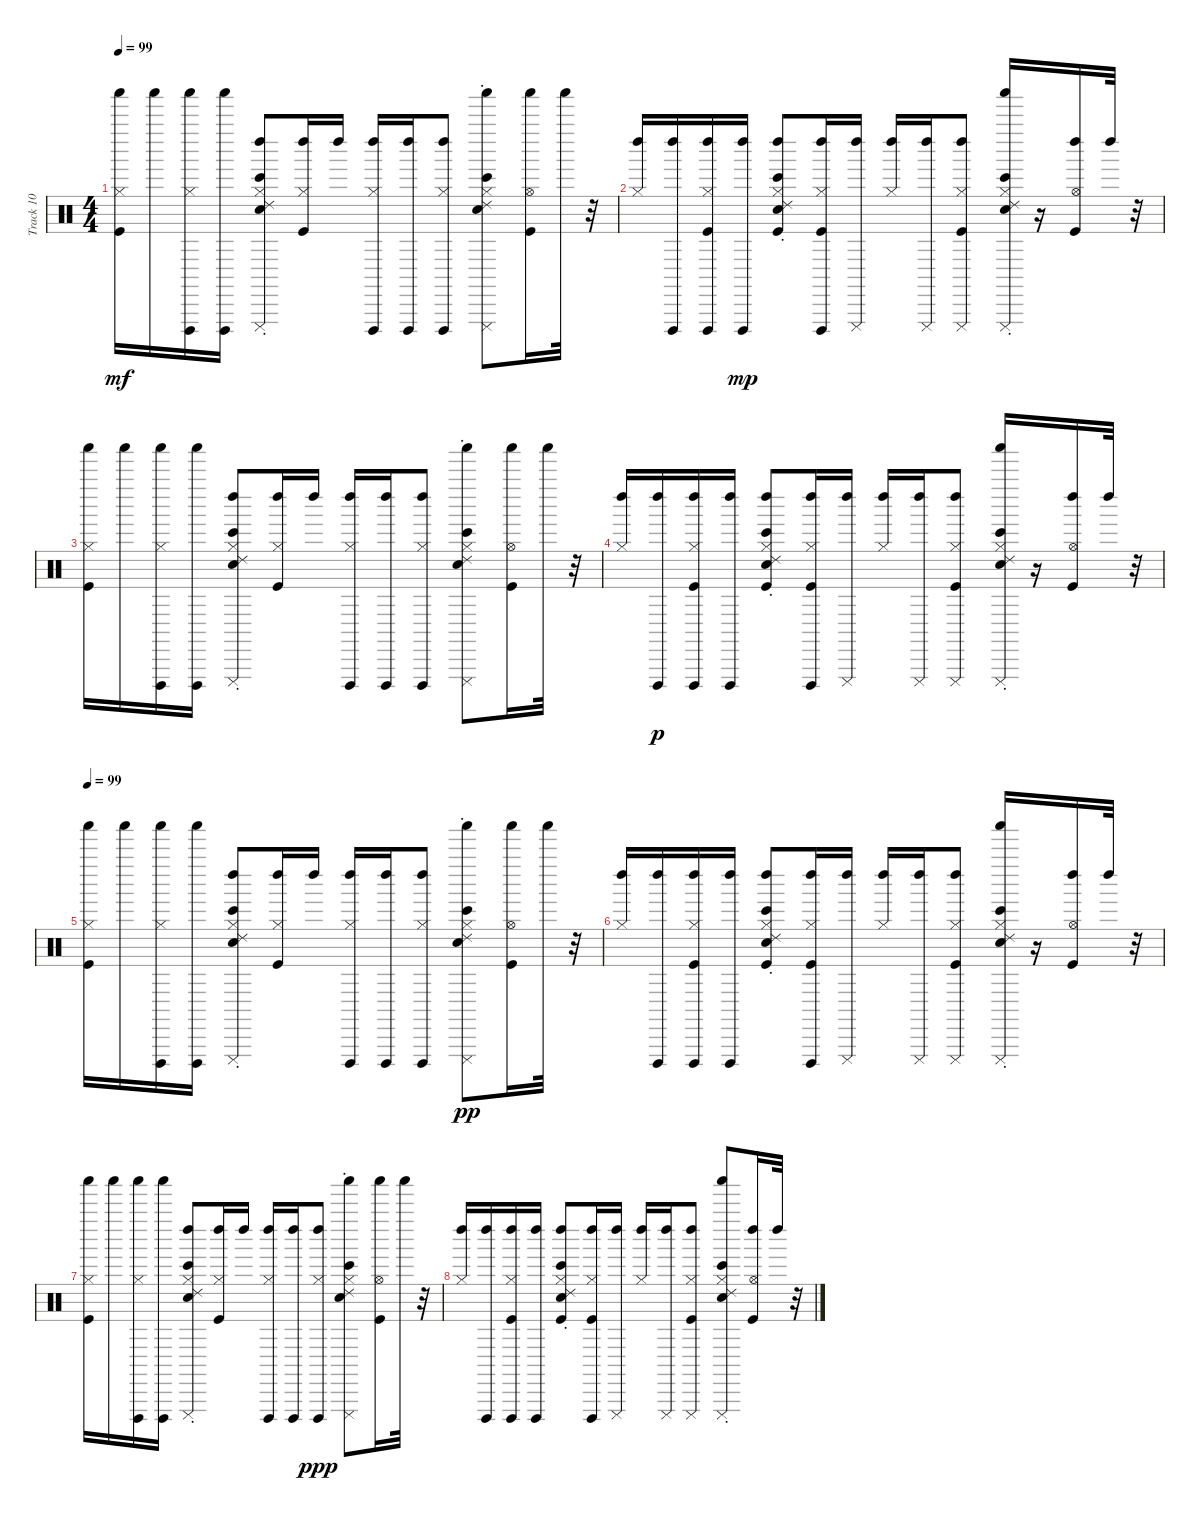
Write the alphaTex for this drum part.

\track ("Track 10" "Track 10") {instrument percussion}
\staff {score}
\articulation defaults
\ts (4 4)
\tempo 99
\clef neutral
\ks c
("Kick (hit)" "Hi-Hat (closed)" "Shaker (hit)").16{dy mf} "Shaker (hit)".16 ("Hi-Hat (closed)" "Cuica (open)" "Shaker (hit)").16 ("Cuica (open)" "Shaker (hit)").16 ("Bongo High (hit)" "Ride (choke) 2" "Electric Snare (hit)" "Hi-Hat (closed)" "Left Maraca (hit)" "Cuica (mute)").8 ("Kick (hit)" "Hi-Hat (closed)" "Left Maraca (hit)").16 "Left Maraca (hit)".16 ("Hi-Hat (closed)" "Left Maraca (hit)" "Cuica (open)").16 ("Cuica (open)" "Left Maraca (hit)").16 ("Hi-Hat (closed)" "Left Maraca (hit)" "Cuica (open)").8 ("Bongo High (hit)" "Ride (choke) 2" "Electric Snare (hit)" "Hi-Hat (closed)" "Cuica (mute)" "Shaker (hit)").8 ("Kick (hit)" "Hi-Hat (open)" "Shaker (hit)").16 "Shaker (hit)".32 r.32 |
("Hi-Hat (closed)" "Left Maraca (hit)").16 ("Cuica (open)" "Left Maraca (hit)").16 ("Kick (hit)" "Hi-Hat (closed)" "Left Maraca (hit)" "Cuica (open)").16 ("Cuica (open)" "Left Maraca (hit)").16{dy mp} ("Bongo High (hit)" "Ride (choke) 2" "Kick (hit)" "Electric Snare (hit)" "Hi-Hat (closed)" "Left Maraca (hit)").8 ("Kick (hit)" "Hi-Hat (closed)" "Left Maraca (hit)" "Cuica (open)").16 ("Cuica (mute)" "Left Maraca (hit)").16 ("Hi-Hat (closed)" "Left Maraca (hit)").16 ("Cuica (mute)" "Left Maraca (hit)").16 ("Kick (hit)" "Hi-Hat (closed)" "Left Maraca (hit)" "Cuica (mute)").8 ("Bongo High (hit)" "Ride (choke) 2" "Electric Snare (hit)" "Hi-Hat (closed)" "Cuica (mute)" "Shaker (hit)").16 r.16 ("Kick (hit)" "Hi-Hat (open)" "Left Maraca (hit)").16 "Left Maraca (hit)".32 r.32 |
("Kick (hit)" "Hi-Hat (closed)" "Shaker (hit)").16 "Shaker (hit)".16 ("Hi-Hat (closed)" "Cuica (open)" "Shaker (hit)").16 ("Cuica (open)" "Shaker (hit)").16 ("Bongo High (hit)" "Ride (choke) 2" "Electric Snare (hit)" "Hi-Hat (closed)" "Left Maraca (hit)" "Cuica (mute)").8 ("Kick (hit)" "Hi-Hat (closed)" "Left Maraca (hit)").16 "Left Maraca (hit)".16 ("Hi-Hat (closed)" "Left Maraca (hit)" "Cuica (open)").16 ("Cuica (open)" "Left Maraca (hit)").16 ("Hi-Hat (closed)" "Left Maraca (hit)" "Cuica (open)").8 ("Bongo High (hit)" "Ride (choke) 2" "Electric Snare (hit)" "Hi-Hat (closed)" "Cuica (mute)" "Shaker (hit)").8 ("Kick (hit)" "Hi-Hat (open)" "Shaker (hit)").16 "Shaker (hit)".32 r.32 |
("Hi-Hat (closed)" "Left Maraca (hit)").16 ("Cuica (open)" "Left Maraca (hit)").16{dy p} ("Kick (hit)" "Hi-Hat (closed)" "Left Maraca (hit)" "Cuica (open)").16 ("Cuica (open)" "Left Maraca (hit)").16 ("Bongo High (hit)" "Ride (choke) 2" "Kick (hit)" "Electric Snare (hit)" "Hi-Hat (closed)" "Left Maraca (hit)").8 ("Kick (hit)" "Hi-Hat (closed)" "Left Maraca (hit)" "Cuica (open)").16 ("Cuica (mute)" "Left Maraca (hit)").16 ("Hi-Hat (closed)" "Left Maraca (hit)").16 ("Cuica (mute)" "Left Maraca (hit)").16 ("Kick (hit)" "Hi-Hat (closed)" "Left Maraca (hit)" "Cuica (mute)").8 ("Bongo High (hit)" "Ride (choke) 2" "Electric Snare (hit)" "Hi-Hat (closed)" "Cuica (mute)" "Shaker (hit)").16 r.16 ("Kick (hit)" "Hi-Hat (open)" "Left Maraca (hit)").16 "Left Maraca (hit)".32 r.32 |
\tempo 99
("Kick (hit)" "Hi-Hat (closed)" "Shaker (hit)").16 "Shaker (hit)".16 ("Hi-Hat (closed)" "Cuica (open)" "Shaker (hit)").16 ("Cuica (open)" "Shaker (hit)").16 ("Bongo High (hit)" "Ride (choke) 2" "Electric Snare (hit)" "Hi-Hat (closed)" "Left Maraca (hit)" "Cuica (mute)").8 ("Kick (hit)" "Hi-Hat (closed)" "Left Maraca (hit)").16 "Left Maraca (hit)".16 ("Hi-Hat (closed)" "Left Maraca (hit)" "Cuica (open)").16 ("Cuica (open)" "Left Maraca (hit)").16 ("Hi-Hat (closed)" "Left Maraca (hit)" "Cuica (open)").8 ("Bongo High (hit)" "Ride (choke) 2" "Electric Snare (hit)" "Hi-Hat (closed)" "Cuica (mute)" "Shaker (hit)").8{dy pp} ("Kick (hit)" "Hi-Hat (open)" "Shaker (hit)").16 "Shaker (hit)".32 r.32 |
("Hi-Hat (closed)" "Left Maraca (hit)").16 ("Cuica (open)" "Left Maraca (hit)").16 ("Kick (hit)" "Hi-Hat (closed)" "Left Maraca (hit)" "Cuica (open)").16 ("Cuica (open)" "Left Maraca (hit)").16 ("Bongo High (hit)" "Ride (choke) 2" "Kick (hit)" "Electric Snare (hit)" "Hi-Hat (closed)" "Left Maraca (hit)").8 ("Kick (hit)" "Hi-Hat (closed)" "Left Maraca (hit)" "Cuica (open)").16 ("Cuica (mute)" "Left Maraca (hit)").16 ("Hi-Hat (closed)" "Left Maraca (hit)").16 ("Cuica (mute)" "Left Maraca (hit)").16 ("Kick (hit)" "Hi-Hat (closed)" "Left Maraca (hit)" "Cuica (mute)").8 ("Bongo High (hit)" "Ride (choke) 2" "Electric Snare (hit)" "Hi-Hat (closed)" "Cuica (mute)" "Shaker (hit)").16 r.16 ("Kick (hit)" "Hi-Hat (open)" "Left Maraca (hit)").16 "Left Maraca (hit)".32 r.32 |
("Kick (hit)" "Hi-Hat (closed)" "Shaker (hit)").16 "Shaker (hit)".16 ("Hi-Hat (closed)" "Cuica (open)" "Shaker (hit)").16 ("Cuica (open)" "Shaker (hit)").16 ("Bongo High (hit)" "Ride (choke) 2" "Electric Snare (hit)" "Hi-Hat (closed)" "Left Maraca (hit)" "Cuica (mute)").8 ("Kick (hit)" "Hi-Hat (closed)" "Left Maraca (hit)").16 "Left Maraca (hit)".16 ("Hi-Hat (closed)" "Left Maraca (hit)" "Cuica (open)").16 ("Cuica (open)" "Left Maraca (hit)").16 ("Hi-Hat (closed)" "Left Maraca (hit)" "Cuica (open)").8{dy ppp} ("Bongo High (hit)" "Ride (choke) 2" "Electric Snare (hit)" "Hi-Hat (closed)" "Cuica (mute)" "Shaker (hit)").8 ("Kick (hit)" "Hi-Hat (open)" "Shaker (hit)").16 "Shaker (hit)".32 r.32 |
("Hi-Hat (closed)" "Left Maraca (hit)").16 ("Cuica (open)" "Left Maraca (hit)").16 ("Kick (hit)" "Hi-Hat (closed)" "Left Maraca (hit)" "Cuica (open)").16 ("Cuica (open)" "Left Maraca (hit)").16 ("Bongo High (hit)" "Ride (choke) 2" "Kick (hit)" "Electric Snare (hit)" "Hi-Hat (closed)" "Left Maraca (hit)").8 ("Kick (hit)" "Hi-Hat (closed)" "Left Maraca (hit)" "Cuica (open)").16 ("Cuica (mute)" "Left Maraca (hit)").16 ("Hi-Hat (closed)" "Left Maraca (hit)").16 ("Cuica (mute)" "Left Maraca (hit)").16 ("Kick (hit)" "Hi-Hat (closed)" "Left Maraca (hit)" "Cuica (mute)").8 ("Bongo High (hit)" "Ride (choke) 2" "Electric Snare (hit)" "Hi-Hat (closed)" "Cuica (mute)" "Shaker (hit)").8 ("Kick (hit)" "Hi-Hat (open)" "Left Maraca (hit)").16 "Left Maraca (hit)".32 r.32
